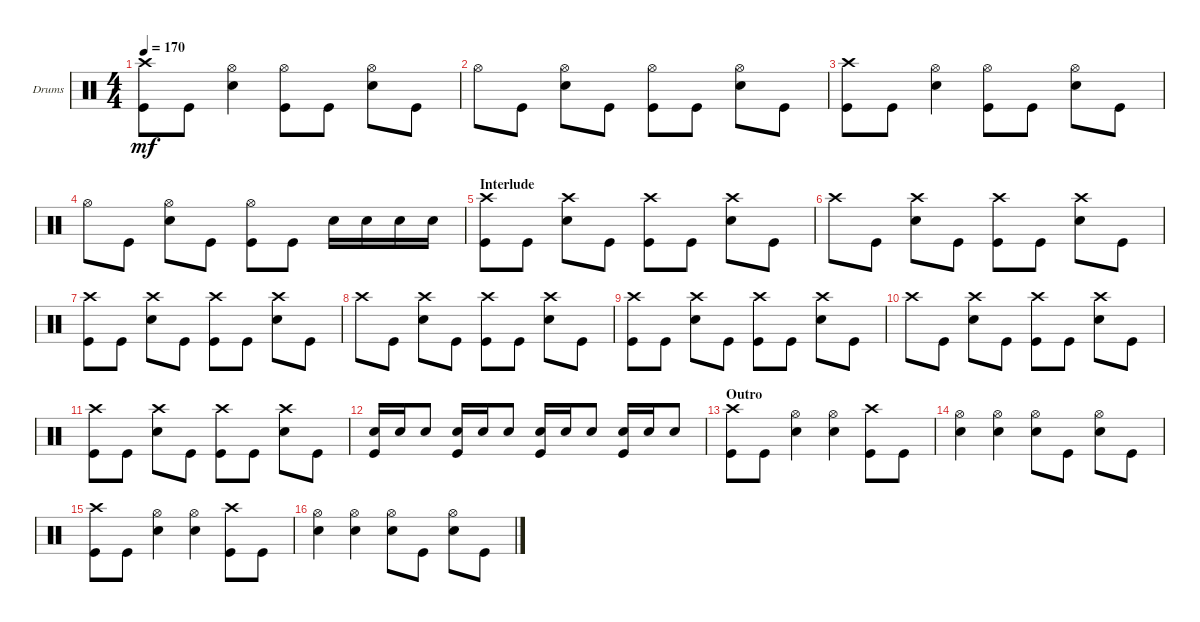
\defaultSystemsLayout 4
\bracketExtendMode groupsimilarinstruments
\firstSystemTrackNameOrientation horizontal
\otherSystemsTrackNameOrientation horizontal
\track ("Drumkit" "Drums") {instrument percussion}
\staff {score}
\articulation defaults
\ts (4 4)
\tempo 170
\clef neutral
\ks c
("Crash high (hit)" "Kick (hit)").8{dy mf} "Kick (hit)".8 ("Snare (hit) 2" "Hi-Hat (open)").4 ("Kick (hit)" "Hi-Hat (open)").8 "Kick (hit)".8 ("Snare (hit) 2" "Hi-Hat (open)").8 "Kick (hit)".8 |
"Hi-Hat (open)".8 "Kick (hit)".8 ("Snare (hit) 2" "Hi-Hat (open)").8 "Kick (hit)".8 ("Kick (hit)" "Hi-Hat (open)").8 "Kick (hit)".8 ("Snare (hit) 2" "Hi-Hat (open)").8 "Kick (hit)".8 |
("Crash high (hit)" "Kick (hit)").8 "Kick (hit)".8 ("Snare (hit) 2" "Hi-Hat (open)").4 ("Kick (hit)" "Hi-Hat (open)").8 "Kick (hit)".8 ("Snare (hit) 2" "Hi-Hat (open)").8 "Kick (hit)".8 |
"Hi-Hat (open)".8 "Kick (hit)".8 ("Snare (hit) 2" "Hi-Hat (open)").8 "Kick (hit)".8 ("Kick (hit)" "Hi-Hat (open)").8 "Kick (hit)".8 "Snare (hit) 2".16 "Snare (hit) 2".16 "Snare (hit) 2".16 "Snare (hit) 2".16 |
\section ("" "Interlude")
("Crash high (hit)" "Kick (hit)").8 "Kick (hit)".8 ("Crash high (hit)" "Snare (hit) 2").8 "Kick (hit)".8 ("Crash high (hit)" "Kick (hit)").8 "Kick (hit)".8 ("Crash high (hit)" "Snare (hit) 2").8 "Kick (hit)".8 |
"Crash high (hit)".8 "Kick (hit)".8 ("Snare (hit) 2" "Crash high (hit)").8 "Kick (hit)".8 ("Crash high (hit)" "Kick (hit)").8 "Kick (hit)".8 ("Snare (hit) 2" "Crash high (hit)").8 "Kick (hit)".8 |
("Crash high (hit)" "Kick (hit)").8 "Kick (hit)".8 ("Crash high (hit)" "Snare (hit) 2").8 "Kick (hit)".8 ("Crash high (hit)" "Kick (hit)").8 "Kick (hit)".8 ("Crash high (hit)" "Snare (hit) 2").8 "Kick (hit)".8 |
"Crash high (hit)".8 "Kick (hit)".8 ("Snare (hit) 2" "Crash high (hit)").8 "Kick (hit)".8 ("Crash high (hit)" "Kick (hit)").8 "Kick (hit)".8 ("Snare (hit) 2" "Crash high (hit)").8 "Kick (hit)".8 |
("Crash high (hit)" "Kick (hit)").8 "Kick (hit)".8 ("Crash high (hit)" "Snare (hit) 2").8 "Kick (hit)".8 ("Crash high (hit)" "Kick (hit)").8 "Kick (hit)".8 ("Crash high (hit)" "Snare (hit) 2").8 "Kick (hit)".8 |
"Crash high (hit)".8 "Kick (hit)".8 ("Snare (hit) 2" "Crash high (hit)").8 "Kick (hit)".8 ("Crash high (hit)" "Kick (hit)").8 "Kick (hit)".8 ("Snare (hit) 2" "Crash high (hit)").8 "Kick (hit)".8 |
("Crash high (hit)" "Kick (hit)").8 "Kick (hit)".8 ("Crash high (hit)" "Snare (hit) 2").8 "Kick (hit)".8 ("Crash high (hit)" "Kick (hit)").8 "Kick (hit)".8 ("Crash high (hit)" "Snare (hit) 2").8 "Kick (hit)".8 |
("Kick (hit)" "Snare (hit) 2").16 "Snare (hit) 2".16 "Snare (hit) 2".8 ("Kick (hit)" "Snare (hit) 2").16 "Snare (hit) 2".16 "Snare (hit) 2".8 ("Kick (hit)" "Snare (hit) 2").16 "Snare (hit) 2".16 "Snare (hit) 2".8 ("Kick (hit)" "Snare (hit) 2").16 "Snare (hit) 2".16 "Snare (hit) 2".8 |
\section ("" "Outro")
("Crash high (hit)" "Kick (hit)").8 "Kick (hit)".8 ("Snare (hit) 2" "Hi-Hat (open)").4 ("Snare (hit) 2" "Hi-Hat (open)").4 ("Crash high (hit)" "Kick (hit)").8 "Kick (hit)".8 |
("Snare (hit) 2" "Hi-Hat (open)").4 ("Snare (hit) 2" "Hi-Hat (open)").4 ("Snare (hit) 2" "Hi-Hat (open)").8 "Kick (hit)".8 ("Snare (hit) 2" "Hi-Hat (open)").8 "Kick (hit)".8 |
("Crash high (hit)" "Kick (hit)").8 "Kick (hit)".8 ("Snare (hit) 2" "Hi-Hat (open)").4 ("Snare (hit) 2" "Hi-Hat (open)").4 ("Crash high (hit)" "Kick (hit)").8 "Kick (hit)".8 |
("Snare (hit) 2" "Hi-Hat (open)").4 ("Snare (hit) 2" "Hi-Hat (open)").4 ("Snare (hit) 2" "Hi-Hat (open)").8 "Kick (hit)".8 ("Snare (hit) 2" "Hi-Hat (open)").8 "Kick (hit)".8
